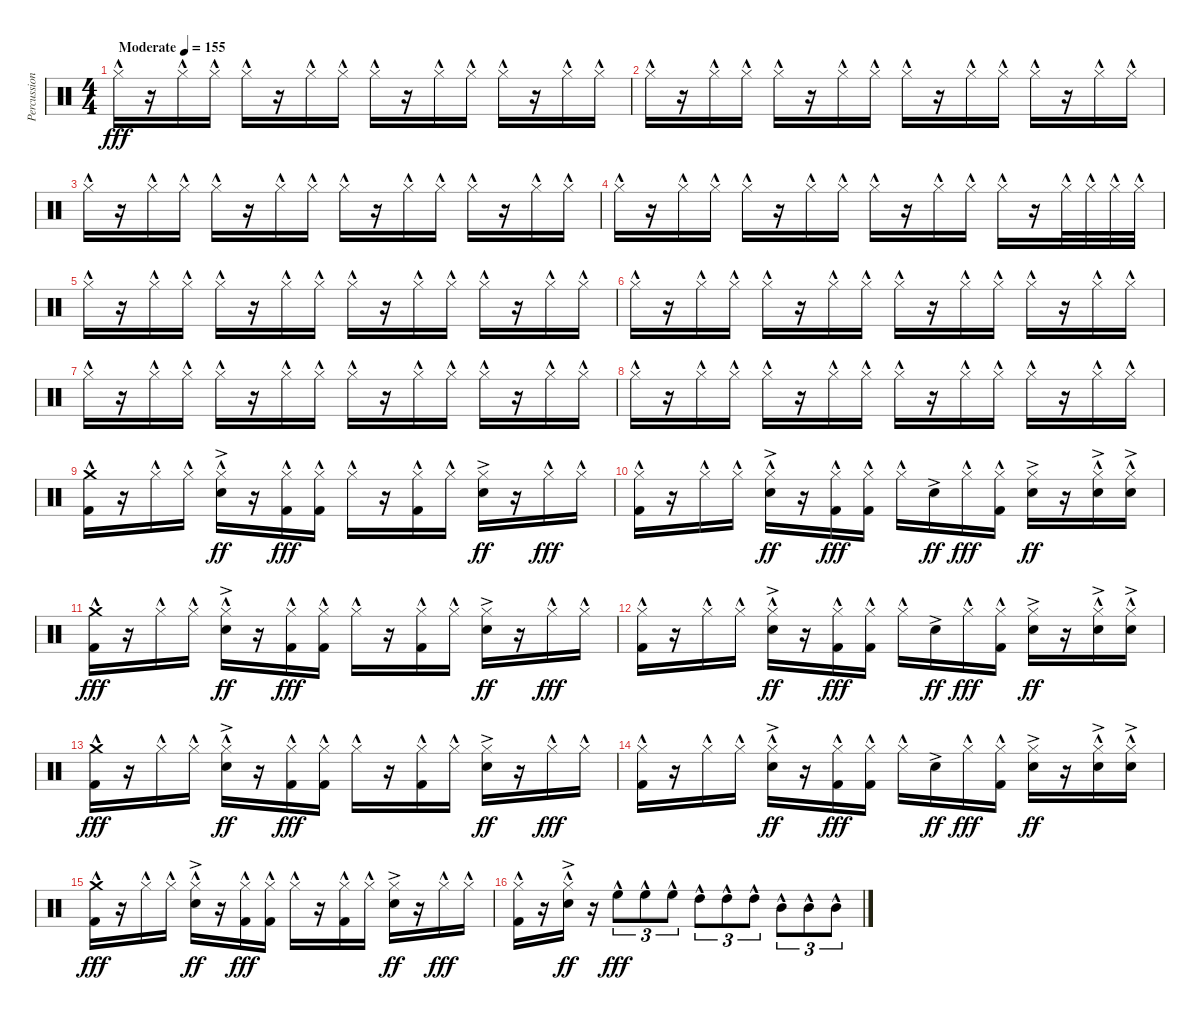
\track ("Percussion" "Percussion") {instrument percussion bank 255}
\staff {score}
\articulation defaults
\ts (4 4)
\tempo (155 "Moderate")
\clef neutral
\ks c "Hi-Hat (closed)"{hac}.16{dy fff}
r.16 "Hi-Hat (closed)"{hac}.16 "Hi-Hat (closed)"{hac}.16 "Hi-Hat (closed)"{hac}.16 r.16 "Hi-Hat (closed)"{hac}.16 "Hi-Hat (closed)"{hac}.16 "Hi-Hat (closed)"{hac}.16 r.16 "Hi-Hat (closed)"{hac}.16 "Hi-Hat (closed)"{hac}.16 "Hi-Hat (closed)"{hac}.16 r.16 "Hi-Hat (closed)"{hac}.16 "Hi-Hat (closed)"{hac}.16 |
"Hi-Hat (closed)"{hac}.16 r.16 "Hi-Hat (closed)"{hac}.16 "Hi-Hat (closed)"{hac}.16 "Hi-Hat (closed)"{hac}.16 r.16 "Hi-Hat (closed)"{hac}.16 "Hi-Hat (closed)"{hac}.16 "Hi-Hat (closed)"{hac}.16 r.16 "Hi-Hat (closed)"{hac}.16 "Hi-Hat (closed)"{hac}.16 "Hi-Hat (closed)"{hac}.16 r.16 "Hi-Hat (closed)"{hac}.16 "Hi-Hat (closed)"{hac}.16 |
"Hi-Hat (closed)"{hac}.16 r.16 "Hi-Hat (closed)"{hac}.16 "Hi-Hat (closed)"{hac}.16 "Hi-Hat (closed)"{hac}.16 r.16 "Hi-Hat (closed)"{hac}.16 "Hi-Hat (closed)"{hac}.16 "Hi-Hat (closed)"{hac}.16 r.16 "Hi-Hat (closed)"{hac}.16 "Hi-Hat (closed)"{hac}.16 "Hi-Hat (closed)"{hac}.16 r.16 "Hi-Hat (closed)"{hac}.16 "Hi-Hat (closed)"{hac}.16 |
"Hi-Hat (closed)"{hac}.16 r.16 "Hi-Hat (closed)"{hac}.16 "Hi-Hat (closed)"{hac}.16 "Hi-Hat (closed)"{hac}.16 r.16 "Hi-Hat (closed)"{hac}.16 "Hi-Hat (closed)"{hac}.16 "Hi-Hat (closed)"{hac}.16 r.16 "Hi-Hat (closed)"{hac}.16 "Hi-Hat (closed)"{hac}.16 "Hi-Hat (closed)"{hac}.16 r.16 "Hi-Hat (closed)"{hac}.32 "Hi-Hat (closed)"{hac}.32 "Hi-Hat (closed)"{hac}.32 "Hi-Hat (closed)"{hac}.32 |
"Hi-Hat (closed)"{hac}.16 r.16 "Hi-Hat (closed)"{hac}.16 "Hi-Hat (closed)"{hac}.16 "Hi-Hat (closed)"{hac}.16 r.16 "Hi-Hat (closed)"{hac}.16 "Hi-Hat (closed)"{hac}.16 "Hi-Hat (closed)"{hac}.16 r.16 "Hi-Hat (closed)"{hac}.16 "Hi-Hat (closed)"{hac}.16 "Hi-Hat (closed)"{hac}.16 r.16 "Hi-Hat (closed)"{hac}.16 "Hi-Hat (closed)"{hac}.16 |
"Hi-Hat (closed)"{hac}.16 r.16 "Hi-Hat (closed)"{hac}.16 "Hi-Hat (closed)"{hac}.16 "Hi-Hat (closed)"{hac}.16 r.16 "Hi-Hat (closed)"{hac}.16 "Hi-Hat (closed)"{hac}.16 "Hi-Hat (closed)"{hac}.16 r.16 "Hi-Hat (closed)"{hac}.16 "Hi-Hat (closed)"{hac}.16 "Hi-Hat (closed)"{hac}.16 r.16 "Hi-Hat (closed)"{hac}.16 "Hi-Hat (closed)"{hac}.16 |
"Hi-Hat (closed)"{hac}.16 r.16 "Hi-Hat (closed)"{hac}.16 "Hi-Hat (closed)"{hac}.16 "Hi-Hat (closed)"{hac}.16 r.16 "Hi-Hat (closed)"{hac}.16 "Hi-Hat (closed)"{hac}.16 "Hi-Hat (closed)"{hac}.16 r.16 "Hi-Hat (closed)"{hac}.16 "Hi-Hat (closed)"{hac}.16 "Hi-Hat (closed)"{hac}.16 r.16 "Hi-Hat (closed)"{hac}.16 "Hi-Hat (closed)"{hac}.16 |
"Hi-Hat (closed)"{hac}.16 r.16 "Hi-Hat (closed)"{hac}.16 "Hi-Hat (closed)"{hac}.16 "Hi-Hat (closed)"{hac}.16 r.16 "Hi-Hat (closed)"{hac}.16 "Hi-Hat (closed)"{hac}.16 "Hi-Hat (closed)"{hac}.16 r.16 "Hi-Hat (closed)"{hac}.16 "Hi-Hat (closed)"{hac}.16 "Hi-Hat (closed)"{hac}.16 r.16 "Hi-Hat (closed)"{hac}.16 "Hi-Hat (closed)"{hac}.16 |
("Crash medium (hit)"{hac} "Kick (hit) 2"{hac}).16 r.16 "Hi-Hat (closed)"{hac}.16 "Hi-Hat (closed)"{hac}.16 ("Hi-Hat (closed)"{hac} "Snare (hit) 2"{ac}).16{dy ff} r.16 ("Hi-Hat (closed)"{hac} "Kick (hit) 2"{hac}).16{dy fff} ("Hi-Hat (closed)"{hac} "Kick (hit) 2"{hac}).16 "Hi-Hat (closed)"{hac}.16 r.16 ("Hi-Hat (closed)"{hac} "Kick (hit) 2"{hac}).16 "Hi-Hat (closed)"{hac}.16 ("Hi-Hat (closed)"{ac} "Snare (hit) 2"{ac}).16{dy ff} r.16 "Hi-Hat (closed)"{hac}.16{dy fff} "Hi-Hat (closed)"{hac}.16 |
("Hi-Hat (closed)"{hac} "Kick (hit) 2"{hac}).16 r.16 "Hi-Hat (closed)"{hac}.16 "Hi-Hat (closed)"{hac}.16 ("Hi-Hat (closed)"{hac} "Snare (hit) 2"{ac}).16{dy ff} r.16 ("Hi-Hat (closed)"{hac} "Kick (hit) 2"{hac}).16{dy fff} ("Hi-Hat (closed)"{hac} "Kick (hit) 2"{hac}).16 "Hi-Hat (closed)"{hac}.16 "Snare (hit) 2"{ac}.16{dy ff} "Hi-Hat (closed)"{hac}.16{dy fff} ("Hi-Hat (closed)"{hac} "Kick (hit) 2").16 ("Hi-Hat (closed)"{ac} "Snare (hit) 2"{ac}).16{dy ff} r.16 ("Hi-Hat (closed)"{hac} "Snare (hit) 2"{ac}).16 ("Hi-Hat (closed)"{hac} "Snare (hit) 2"{ac}).16 |
("Crash medium (hit)"{hac} "Kick (hit) 2"{hac}).16{dy fff} r.16 "Hi-Hat (closed)"{hac}.16 "Hi-Hat (closed)"{hac}.16 ("Hi-Hat (closed)"{hac} "Snare (hit) 2"{ac}).16{dy ff} r.16 ("Hi-Hat (closed)"{hac} "Kick (hit) 2"{hac}).16{dy fff} ("Hi-Hat (closed)"{hac} "Kick (hit) 2"{hac}).16 "Hi-Hat (closed)"{hac}.16 r.16 ("Hi-Hat (closed)"{hac} "Kick (hit) 2"{hac}).16 "Hi-Hat (closed)"{hac}.16 ("Hi-Hat (closed)"{ac} "Snare (hit) 2"{ac}).16{dy ff} r.16 "Hi-Hat (closed)"{hac}.16{dy fff} "Hi-Hat (closed)"{hac}.16 |
("Hi-Hat (closed)"{hac} "Kick (hit) 2"{hac}).16 r.16 "Hi-Hat (closed)"{hac}.16 "Hi-Hat (closed)"{hac}.16 ("Hi-Hat (closed)"{hac} "Snare (hit) 2"{ac}).16{dy ff} r.16 ("Hi-Hat (closed)"{hac} "Kick (hit) 2"{hac}).16{dy fff} ("Hi-Hat (closed)"{hac} "Kick (hit) 2"{hac}).16 "Hi-Hat (closed)"{hac}.16 "Snare (hit) 2"{ac}.16{dy ff} "Hi-Hat (closed)"{hac}.16{dy fff} ("Hi-Hat (closed)"{hac} "Kick (hit) 2").16 ("Hi-Hat (closed)"{ac} "Snare (hit) 2"{ac}).16{dy ff} r.16 ("Hi-Hat (closed)"{hac} "Snare (hit) 2"{ac}).16 ("Hi-Hat (closed)"{hac} "Snare (hit) 2"{ac}).16 |
("Crash medium (hit)"{hac} "Kick (hit) 2"{hac}).16{dy fff} r.16 "Hi-Hat (closed)"{hac}.16 "Hi-Hat (closed)"{hac}.16 ("Hi-Hat (closed)"{hac} "Snare (hit) 2"{ac}).16{dy ff} r.16 ("Hi-Hat (closed)"{hac} "Kick (hit) 2"{hac}).16{dy fff} ("Hi-Hat (closed)"{hac} "Kick (hit) 2"{hac}).16 "Hi-Hat (closed)"{hac}.16 r.16 ("Hi-Hat (closed)"{hac} "Kick (hit) 2"{hac}).16 "Hi-Hat (closed)"{hac}.16 ("Hi-Hat (closed)"{ac} "Snare (hit) 2"{ac}).16{dy ff} r.16 "Hi-Hat (closed)"{hac}.16{dy fff} "Hi-Hat (closed)"{hac}.16 |
("Hi-Hat (closed)"{hac} "Kick (hit) 2"{hac}).16 r.16 "Hi-Hat (closed)"{hac}.16 "Hi-Hat (closed)"{hac}.16 ("Hi-Hat (closed)"{hac} "Snare (hit) 2"{ac}).16{dy ff} r.16 ("Hi-Hat (closed)"{hac} "Kick (hit) 2"{hac}).16{dy fff} ("Hi-Hat (closed)"{hac} "Kick (hit) 2"{hac}).16 "Hi-Hat (closed)"{hac}.16 "Snare (hit) 2"{ac}.16{dy ff} "Hi-Hat (closed)"{hac}.16{dy fff} ("Hi-Hat (closed)"{hac} "Kick (hit) 2").16 ("Hi-Hat (closed)"{ac} "Snare (hit) 2"{ac}).16{dy ff} r.16 ("Hi-Hat (closed)"{hac} "Snare (hit) 2"{ac}).16 ("Hi-Hat (closed)"{hac} "Snare (hit) 2"{ac}).16 |
("Crash medium (hit)"{hac} "Kick (hit) 2"{hac}).16{dy fff} r.16 "Hi-Hat (closed)"{hac}.16 "Hi-Hat (closed)"{hac}.16 ("Hi-Hat (closed)"{hac} "Snare (hit) 2"{ac}).16{dy ff} r.16 ("Hi-Hat (closed)"{hac} "Kick (hit) 2"{hac}).16{dy fff} ("Hi-Hat (closed)"{hac} "Kick (hit) 2"{hac}).16 "Hi-Hat (closed)"{hac}.16 r.16 ("Hi-Hat (closed)"{hac} "Kick (hit) 2"{hac}).16 "Hi-Hat (closed)"{hac}.16 ("Hi-Hat (closed)"{ac} "Snare (hit) 2"{ac}).16{dy ff} r.16 "Hi-Hat (closed)"{hac}.16{dy fff} "Hi-Hat (closed)"{hac}.16 |
("Hi-Hat (closed)"{hac} "Kick (hit) 2"{hac}).16 r.16 ("Hi-Hat (closed)"{hac} "Snare (hit) 2"{ac}).16{dy ff} r.16 "High Floor Tom (hit)"{hac}.8{tu (3 2) dy fff} "High Floor Tom (hit)"{hac}.8{tu (3 2)} "High Floor Tom (hit)"{hac}.8{tu (3 2)} "High Tom (hit)"{hac}.8{tu (3 2)} "High Tom (hit)"{hac}.8{tu (3 2)} "High Tom (hit)"{hac}.8{tu (3 2)} "Mid Tom (hit)"{hac}.8{tu (3 2)} "Mid Tom (hit)"{hac}.8{tu (3 2)} "Mid Tom (hit)"{hac}.8{tu (3 2)}
